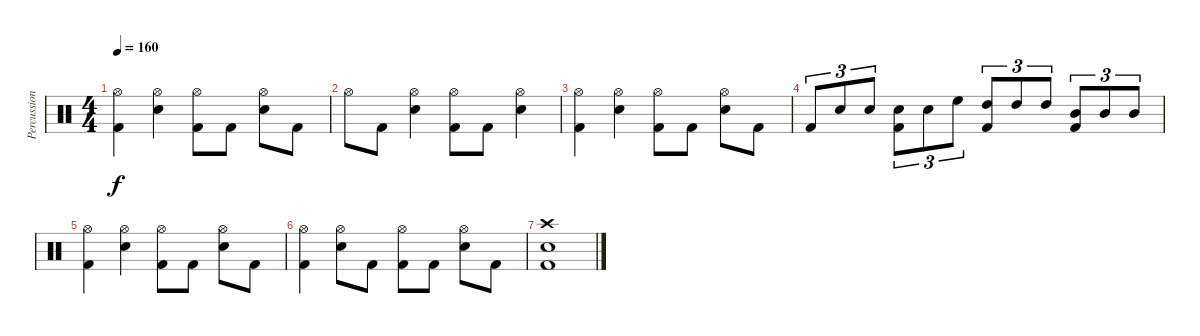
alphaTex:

\track ("Percussion" "Percussion") {instrument percussion}
\staff {score}
\articulation defaults
\ts (4 4)
\tempo 160
\clef neutral
\ks c
("Hi-Hat (open)" "Kick (hit) 2").4{dy f} ("Hi-Hat (open)" "Snare (hit) 2").4 ("Hi-Hat (open)" "Kick (hit) 2").8 "Kick (hit) 2".8 ("Hi-Hat (open)" "Snare (hit) 2").8 "Kick (hit) 2".8 |
"Hi-Hat (open)".8 "Kick (hit) 2".8 ("Hi-Hat (open)" "Snare (hit) 2").4 ("Hi-Hat (open)" "Kick (hit) 2").8 "Kick (hit) 2".8 ("Hi-Hat (open)" "Snare (hit) 2").4 |
("Hi-Hat (open)" "Kick (hit) 2").4 ("Hi-Hat (open)" "Snare (hit) 2").4 ("Hi-Hat (open)" "Kick (hit) 2").8 "Kick (hit) 2".8 ("Hi-Hat (open)" "Snare (hit) 2").8 "Kick (hit) 2".8 |
"Kick (hit) 2".8{tu (3 2)} "Snare (hit) 2".8{tu (3 2)} "Snare (hit) 2".8{tu (3 2)} ("Snare (hit) 2" "Kick (hit) 2").8{tu (3 2)} "Snare (hit) 2".8{tu (3 2)} "High Floor Tom (hit)".8{tu (3 2)} ("High Tom (hit)" "Kick (hit) 2").8{tu (3 2)} "High Tom (hit)".8{tu (3 2)} "High Tom (hit)".8{tu (3 2)} ("Mid Tom (hit)" "Kick (hit) 2").8{tu (3 2)} "Mid Tom (hit)".8{tu (3 2)} "Mid Tom (hit)".8{tu (3 2)} |
("Hi-Hat (open)" "Kick (hit) 2").4 ("Hi-Hat (open)" "Snare (hit) 2").4 ("Hi-Hat (open)" "Kick (hit) 2").8 "Kick (hit) 2".8 ("Hi-Hat (open)" "Snare (hit) 2").8 "Kick (hit) 2".8 |
("Hi-Hat (open)" "Kick (hit) 2").4 ("Hi-Hat (open)" "Snare (hit) 2").8 "Kick (hit) 2".8 ("Hi-Hat (open)" "Kick (hit) 2").8 "Kick (hit) 2".8 ("Hi-Hat (open)" "Snare (hit) 2").8 "Kick (hit) 2".8 |
("Crash high (hit)" "Snare (hit) 2" "Kick (hit) 2").1
